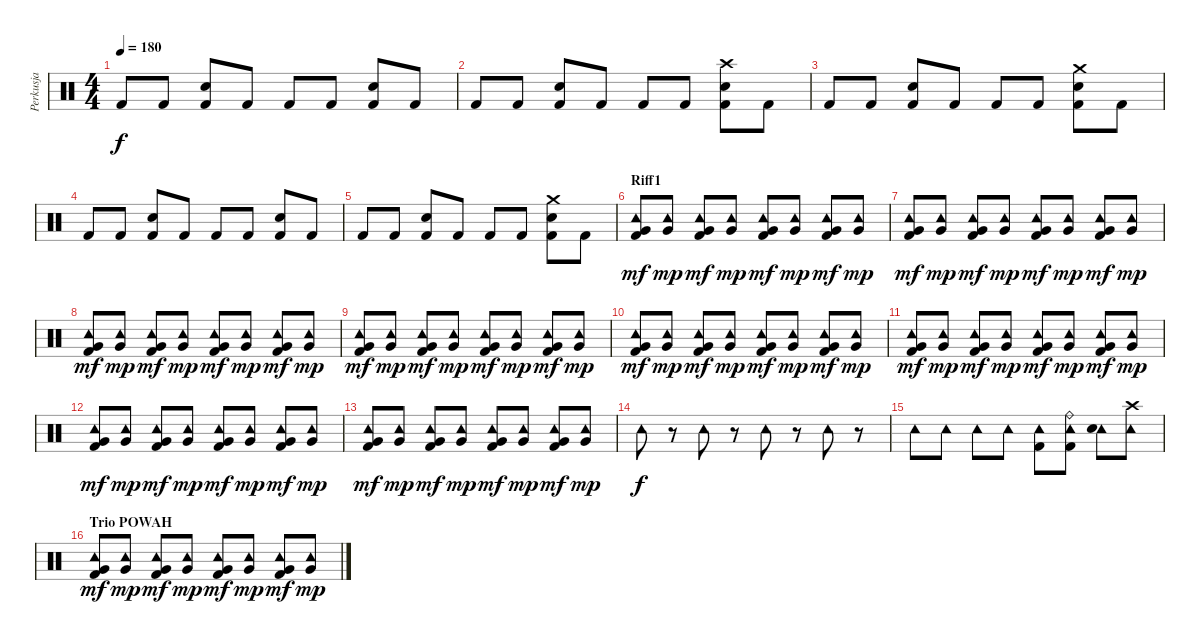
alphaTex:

\track ("Perkusja" "Perkusja") {instrument percussion}
\staff {score}
\articulation defaults
\ts (4 4)
\tempo 180
\clef neutral
\ks c "Kick (hit) 2".8{dy f} "Kick (hit) 2".8
("Kick (hit) 2" "Snare (hit) 2").8 "Kick (hit) 2".8 "Kick (hit) 2".8 "Kick (hit) 2".8 ("Kick (hit) 2" "Snare (hit) 2").8 "Kick (hit) 2".8 |
"Kick (hit) 2".8 "Kick (hit) 2".8 ("Kick (hit) 2" "Snare (hit) 2").8 "Kick (hit) 2".8 "Kick (hit) 2".8 "Kick (hit) 2".8 ("Crash high (hit)" "Kick (hit) 2" "Snare (hit) 2").8 "Kick (hit) 2".8 |
"Kick (hit) 2".8 "Kick (hit) 2".8 ("Kick (hit) 2" "Snare (hit) 2").8 "Kick (hit) 2".8 "Kick (hit) 2".8 "Kick (hit) 2".8 ("Crash medium (hit)" "Kick (hit) 2" "Snare (hit) 2").8 "Kick (hit) 2".8 |
"Kick (hit) 2".8 "Kick (hit) 2".8 ("Kick (hit) 2" "Snare (hit) 2").8 "Kick (hit) 2".8 "Kick (hit) 2".8 "Kick (hit) 2".8 ("Kick (hit) 2" "Snare (hit) 2").8 "Kick (hit) 2".8 |
"Kick (hit) 2".8 "Kick (hit) 2".8 ("Kick (hit) 2" "Snare (hit) 2").8 "Kick (hit) 2".8 "Kick (hit) 2".8 "Kick (hit) 2".8 ("Crash medium (hit)" "Kick (hit) 2" "Snare (hit) 2").8 "Kick (hit) 2".8 |
\section ("" "Riff1")
("Tambourine (hit)" "Kick (hit) 2" "Very Low Tom (hit)").8{dy mf} ("Tambourine (hit)" "Very Low Tom (hit)").8{dy mp} ("Tambourine (hit)" "Kick (hit) 2" "Very Low Tom (hit)").8{dy mf} ("Tambourine (hit)" "Very Low Tom (hit)").8{dy mp} ("Tambourine (hit)" "Kick (hit) 2" "Very Low Tom (hit)").8{dy mf} ("Tambourine (hit)" "Very Low Tom (hit)").8{dy mp} ("Tambourine (hit)" "Kick (hit) 2" "Very Low Tom (hit)").8{dy mf} ("Tambourine (hit)" "Very Low Tom (hit)").8{dy mp} |
("Tambourine (hit)" "Kick (hit) 2" "Very Low Tom (hit)").8{dy mf} ("Tambourine (hit)" "Very Low Tom (hit)").8{dy mp} ("Tambourine (hit)" "Kick (hit) 2" "Very Low Tom (hit)").8{dy mf} ("Tambourine (hit)" "Very Low Tom (hit)").8{dy mp} ("Tambourine (hit)" "Kick (hit) 2" "Very Low Tom (hit)").8{dy mf} ("Tambourine (hit)" "Very Low Tom (hit)").8{dy mp} ("Tambourine (hit)" "Kick (hit) 2" "Very Low Tom (hit)").8{dy mf} ("Tambourine (hit)" "Very Low Tom (hit)").8{dy mp} |
("Tambourine (hit)" "Kick (hit) 2" "Very Low Tom (hit)").8{dy mf} ("Tambourine (hit)" "Very Low Tom (hit)").8{dy mp} ("Tambourine (hit)" "Kick (hit) 2" "Very Low Tom (hit)").8{dy mf} ("Tambourine (hit)" "Very Low Tom (hit)").8{dy mp} ("Tambourine (hit)" "Kick (hit) 2" "Very Low Tom (hit)").8{dy mf} ("Tambourine (hit)" "Very Low Tom (hit)").8{dy mp} ("Tambourine (hit)" "Kick (hit) 2" "Very Low Tom (hit)").8{dy mf} ("Tambourine (hit)" "Very Low Tom (hit)").8{dy mp} |
("Tambourine (hit)" "Kick (hit) 2" "Very Low Tom (hit)").8{dy mf} ("Tambourine (hit)" "Very Low Tom (hit)").8{dy mp} ("Tambourine (hit)" "Kick (hit) 2" "Very Low Tom (hit)").8{dy mf} ("Tambourine (hit)" "Very Low Tom (hit)").8{dy mp} ("Tambourine (hit)" "Kick (hit) 2" "Very Low Tom (hit)").8{dy mf} ("Tambourine (hit)" "Very Low Tom (hit)").8{dy mp} ("Tambourine (hit)" "Kick (hit) 2" "Very Low Tom (hit)").8{dy mf} ("Tambourine (hit)" "Very Low Tom (hit)").8{dy mp} |
("Tambourine (hit)" "Kick (hit) 2" "Very Low Tom (hit)").8{dy mf} ("Tambourine (hit)" "Very Low Tom (hit)").8{dy mp} ("Tambourine (hit)" "Kick (hit) 2" "Very Low Tom (hit)").8{dy mf} ("Tambourine (hit)" "Very Low Tom (hit)").8{dy mp} ("Tambourine (hit)" "Kick (hit) 2" "Very Low Tom (hit)").8{dy mf} ("Tambourine (hit)" "Very Low Tom (hit)").8{dy mp} ("Tambourine (hit)" "Kick (hit) 2" "Very Low Tom (hit)").8{dy mf} ("Tambourine (hit)" "Very Low Tom (hit)").8{dy mp} |
("Tambourine (hit)" "Kick (hit) 2" "Very Low Tom (hit)").8{dy mf} ("Tambourine (hit)" "Very Low Tom (hit)").8{dy mp} ("Tambourine (hit)" "Kick (hit) 2" "Very Low Tom (hit)").8{dy mf} ("Tambourine (hit)" "Very Low Tom (hit)").8{dy mp} ("Tambourine (hit)" "Kick (hit) 2" "Very Low Tom (hit)").8{dy mf} ("Tambourine (hit)" "Very Low Tom (hit)").8{dy mp} ("Tambourine (hit)" "Kick (hit) 2" "Very Low Tom (hit)").8{dy mf} ("Tambourine (hit)" "Very Low Tom (hit)").8{dy mp} |
("Tambourine (hit)" "Kick (hit) 2" "Very Low Tom (hit)").8{dy mf} ("Tambourine (hit)" "Very Low Tom (hit)").8{dy mp} ("Tambourine (hit)" "Kick (hit) 2" "Very Low Tom (hit)").8{dy mf} ("Tambourine (hit)" "Very Low Tom (hit)").8{dy mp} ("Tambourine (hit)" "Kick (hit) 2" "Very Low Tom (hit)").8{dy mf} ("Tambourine (hit)" "Very Low Tom (hit)").8{dy mp} ("Tambourine (hit)" "Kick (hit) 2" "Very Low Tom (hit)").8{dy mf} ("Tambourine (hit)" "Very Low Tom (hit)").8{dy mp} |
("Tambourine (hit)" "Kick (hit) 2" "Very Low Tom (hit)").8{dy mf} ("Tambourine (hit)" "Very Low Tom (hit)").8{dy mp} ("Tambourine (hit)" "Kick (hit) 2" "Very Low Tom (hit)").8{dy mf} ("Tambourine (hit)" "Very Low Tom (hit)").8{dy mp} ("Tambourine (hit)" "Kick (hit) 2" "Very Low Tom (hit)").8{dy mf} ("Tambourine (hit)" "Very Low Tom (hit)").8{dy mp} ("Tambourine (hit)" "Kick (hit) 2" "Very Low Tom (hit)").8{dy mf} ("Tambourine (hit)" "Very Low Tom (hit)").8{dy mp} |
"Tambourine (hit)".8{dy f} r.8 "Tambourine (hit)".8 r.8 "Tambourine (hit)".8 r.8 "Tambourine (hit)".8 r.8 |
"Tambourine (hit)".8 "Tambourine (hit)".8 "Tambourine (hit)".8 "Tambourine (hit)".8 ("Tambourine (hit)" "Kick (hit) 2").8 ("Tambourine (hit)" "Kick (hit) 2" "Ride (bell)").8 ("Tambourine (hit)" "Snare (hit) 2").8 ("Tambourine (hit)" "Crash high (hit)").8 |
\section ("" "Trio POWAH")
("Tambourine (hit)" "Kick (hit) 2" "Very Low Tom (hit)").8{dy mf} ("Tambourine (hit)" "Very Low Tom (hit)").8{dy mp} ("Tambourine (hit)" "Kick (hit) 2" "Very Low Tom (hit)").8{dy mf} ("Tambourine (hit)" "Very Low Tom (hit)").8{dy mp} ("Tambourine (hit)" "Kick (hit) 2" "Very Low Tom (hit)").8{dy mf} ("Tambourine (hit)" "Very Low Tom (hit)").8{dy mp} ("Tambourine (hit)" "Kick (hit) 2" "Very Low Tom (hit)").8{dy mf} ("Tambourine (hit)" "Very Low Tom (hit)").8{dy mp}
